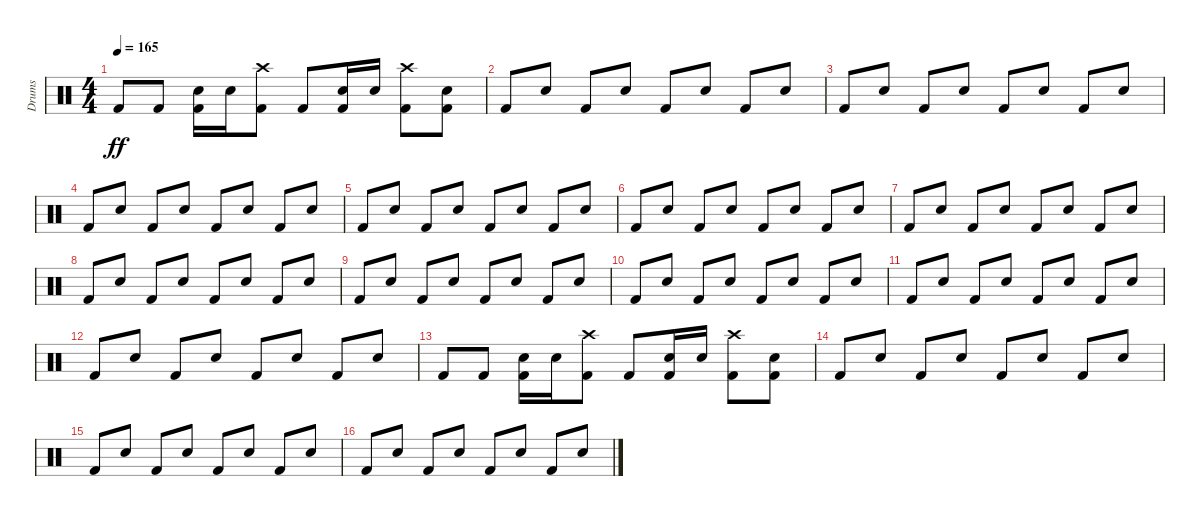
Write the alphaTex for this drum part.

\track ("Drums" "Drums") {instrument percussion}
\staff {score}
\articulation defaults
\ts (4 4)
\tempo 165
\clef neutral
\ks c "Kick (hit) 2".8{dy ff} "Kick (hit) 2".8
("Kick (hit) 2" "Snare (hit) 2").16 "Snare (hit) 2".16 ("Kick (hit) 2" "Crash high (hit)").8 "Kick (hit) 2".8 ("Kick (hit) 2" "Snare (hit) 2").16 "Snare (hit) 2".16 ("Kick (hit) 2" "Crash high (hit)").8 ("Kick (hit) 2" "Snare (hit) 2").8 |
"Kick (hit) 2".8 "Snare (hit) 2".8 "Kick (hit) 2".8 "Snare (hit) 2".8 "Kick (hit) 2".8 "Snare (hit) 2".8 "Kick (hit) 2".8 "Snare (hit) 2".8 |
"Kick (hit) 2".8 "Snare (hit) 2".8 "Kick (hit) 2".8 "Snare (hit) 2".8 "Kick (hit) 2".8 "Snare (hit) 2".8 "Kick (hit) 2".8 "Snare (hit) 2".8 |
"Kick (hit) 2".8 "Snare (hit) 2".8 "Kick (hit) 2".8 "Snare (hit) 2".8 "Kick (hit) 2".8 "Snare (hit) 2".8 "Kick (hit) 2".8 "Snare (hit) 2".8 |
"Kick (hit) 2".8 "Snare (hit) 2".8 "Kick (hit) 2".8 "Snare (hit) 2".8 "Kick (hit) 2".8 "Snare (hit) 2".8 "Kick (hit) 2".8 "Snare (hit) 2".8 |
"Kick (hit) 2".8 "Snare (hit) 2".8 "Kick (hit) 2".8 "Snare (hit) 2".8 "Kick (hit) 2".8 "Snare (hit) 2".8 "Kick (hit) 2".8 "Snare (hit) 2".8 |
"Kick (hit) 2".8 "Snare (hit) 2".8 "Kick (hit) 2".8 "Snare (hit) 2".8 "Kick (hit) 2".8 "Snare (hit) 2".8 "Kick (hit) 2".8 "Snare (hit) 2".8 |
"Kick (hit) 2".8 "Snare (hit) 2".8 "Kick (hit) 2".8 "Snare (hit) 2".8 "Kick (hit) 2".8 "Snare (hit) 2".8 "Kick (hit) 2".8 "Snare (hit) 2".8 |
"Kick (hit) 2".8 "Snare (hit) 2".8 "Kick (hit) 2".8 "Snare (hit) 2".8 "Kick (hit) 2".8 "Snare (hit) 2".8 "Kick (hit) 2".8 "Snare (hit) 2".8 |
"Kick (hit) 2".8 "Snare (hit) 2".8 "Kick (hit) 2".8 "Snare (hit) 2".8 "Kick (hit) 2".8 "Snare (hit) 2".8 "Kick (hit) 2".8 "Snare (hit) 2".8 |
"Kick (hit) 2".8 "Snare (hit) 2".8 "Kick (hit) 2".8 "Snare (hit) 2".8 "Kick (hit) 2".8 "Snare (hit) 2".8 "Kick (hit) 2".8 "Snare (hit) 2".8 |
"Kick (hit) 2".8 "Snare (hit) 2".8 "Kick (hit) 2".8 "Snare (hit) 2".8 "Kick (hit) 2".8 "Snare (hit) 2".8 "Kick (hit) 2".8 "Snare (hit) 2".8 |
"Kick (hit) 2".8 "Kick (hit) 2".8 ("Snare (hit) 2" "Kick (hit) 2").16 "Snare (hit) 2".16 ("Crash high (hit)" "Kick (hit) 2").8 "Kick (hit) 2".8 ("Snare (hit) 2" "Kick (hit) 2").16 "Snare (hit) 2".16 ("Crash high (hit)" "Kick (hit) 2").8 ("Snare (hit) 2" "Kick (hit) 2").8 |
"Kick (hit) 2".8 "Snare (hit) 2".8 "Kick (hit) 2".8 "Snare (hit) 2".8 "Kick (hit) 2".8 "Snare (hit) 2".8 "Kick (hit) 2".8 "Snare (hit) 2".8 |
"Kick (hit) 2".8 "Snare (hit) 2".8 "Kick (hit) 2".8 "Snare (hit) 2".8 "Kick (hit) 2".8 "Snare (hit) 2".8 "Kick (hit) 2".8 "Snare (hit) 2".8 |
"Kick (hit) 2".8 "Snare (hit) 2".8 "Kick (hit) 2".8 "Snare (hit) 2".8 "Kick (hit) 2".8 "Snare (hit) 2".8 "Kick (hit) 2".8 "Snare (hit) 2".8
